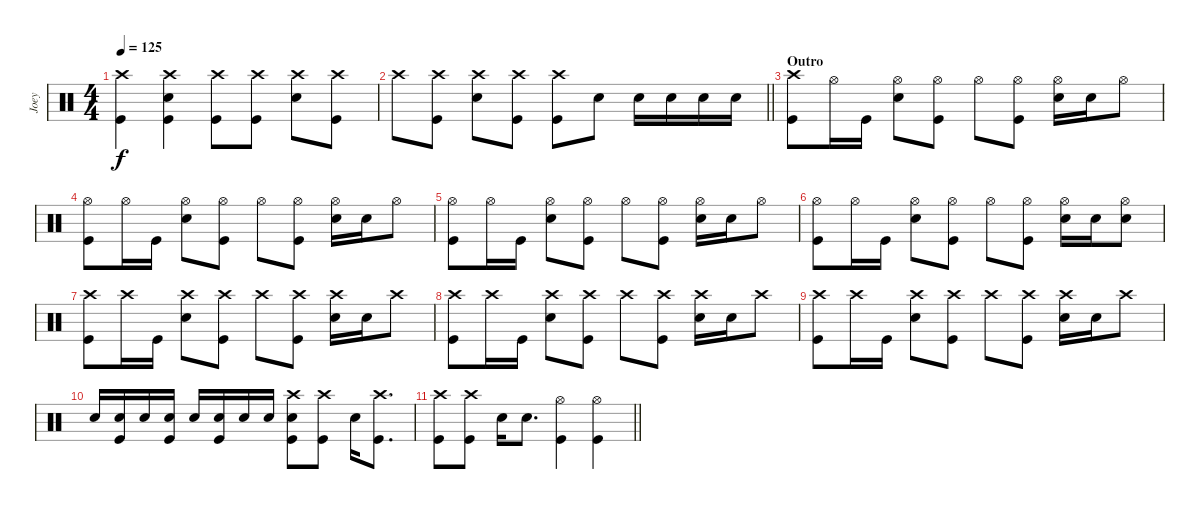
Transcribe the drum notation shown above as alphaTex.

\track ("Joey" "Joey") {instrument percussion}
\staff {score}
\articulation defaults
\ts (4 4)
\tempo 125
\clef neutral
\ks c
("Crash high (hit)" "Kick (hit)").4{dy f} ("Crash high (hit)" "Snare (hit) 2" "Kick (hit)").4 ("Crash high (hit)" "Kick (hit)").8 ("Crash high (hit)" "Kick (hit)").8 ("Crash high (hit)" "Snare (hit) 2").8 ("Crash high (hit)" "Kick (hit)").8 |
\barLineRight lightlight "Crash high (hit)".8
("Crash high (hit)" "Kick (hit)").8 ("Crash high (hit)" "Snare (hit) 2").8 ("Crash high (hit)" "Kick (hit)").8 ("Crash high (hit)" "Kick (hit)").8 "Snare (hit) 2".8 "Snare (hit) 2".16 "Snare (hit) 2".16 "Snare (hit) 2".16 "Snare (hit) 2".16 |
\section ("" "Outro")
("Crash high (hit)" "Kick (hit)").8 "Hi-Hat (open)".16 "Kick (hit)".16 ("Hi-Hat (open)" "Snare (hit) 2").8 ("Hi-Hat (open)" "Kick (hit)").8 "Hi-Hat (open)".8 ("Hi-Hat (open)" "Kick (hit)").8 ("Hi-Hat (open)" "Snare (hit) 2").16 "Snare (hit) 2".16 "Hi-Hat (open)".8 |
("Hi-Hat (open)" "Kick (hit)").8 "Hi-Hat (open)".16 "Kick (hit)".16 ("Hi-Hat (open)" "Snare (hit) 2").8 ("Hi-Hat (open)" "Kick (hit)").8 "Hi-Hat (open)".8 ("Hi-Hat (open)" "Kick (hit)").8 ("Hi-Hat (open)" "Snare (hit) 2").16 "Snare (hit) 2".16 "Hi-Hat (open)".8 |
("Hi-Hat (open)" "Kick (hit)").8 "Hi-Hat (open)".16 "Kick (hit)".16 ("Hi-Hat (open)" "Snare (hit) 2").8 ("Hi-Hat (open)" "Kick (hit)").8 "Hi-Hat (open)".8 ("Hi-Hat (open)" "Kick (hit)").8 ("Hi-Hat (open)" "Snare (hit) 2").16 "Snare (hit) 2".16 "Hi-Hat (open)".8 |
("Hi-Hat (open)" "Kick (hit)").8 "Hi-Hat (open)".16 "Kick (hit)".16 ("Hi-Hat (open)" "Snare (hit) 2").8 ("Hi-Hat (open)" "Kick (hit)").8 "Hi-Hat (open)".8 ("Hi-Hat (open)" "Kick (hit)").8 ("Hi-Hat (open)" "Snare (hit) 2").16 "Snare (hit) 2".16 ("Hi-Hat (open)" "Snare (hit) 2").8 |
("Crash high (hit)" "Kick (hit)").8 "Crash high (hit)".16 "Kick (hit)".16 ("Crash high (hit)" "Snare (hit) 2").8 ("Crash high (hit)" "Kick (hit)").8 "Crash high (hit)".8 ("Crash high (hit)" "Kick (hit)").8 ("Crash high (hit)" "Snare (hit) 2").16 "Snare (hit) 2".16 "Crash high (hit)".8 |
("Crash high (hit)" "Kick (hit)").8 "Crash high (hit)".16 "Kick (hit)".16 ("Crash high (hit)" "Snare (hit) 2").8 ("Crash high (hit)" "Kick (hit)").8 "Crash high (hit)".8 ("Crash high (hit)" "Kick (hit)").8 ("Crash high (hit)" "Snare (hit) 2").16 "Snare (hit) 2".16 "Crash high (hit)".8 |
("Crash high (hit)" "Kick (hit)").8 "Crash high (hit)".16 "Kick (hit)".16 ("Crash high (hit)" "Snare (hit) 2").8 ("Crash high (hit)" "Kick (hit)").8 "Crash high (hit)".8 ("Crash high (hit)" "Kick (hit)").8 ("Crash high (hit)" "Snare (hit) 2").16 "Snare (hit) 2".16 "Crash high (hit)".8 |
"Snare (hit) 2".16 ("Snare (hit) 2" "Kick (hit)").16 "Snare (hit) 2".16 ("Snare (hit) 2" "Kick (hit)").16 "Snare (hit) 2".16 ("Snare (hit) 2" "Kick (hit)").16 "Snare (hit) 2".16 "Snare (hit) 2".16 ("Crash high (hit)" "Snare (hit) 2" "Kick (hit)").8 ("Crash high (hit)" "Kick (hit)").8 "Snare (hit) 2".16 ("Crash high (hit)" "Kick (hit)").8{d} |
\barLineRight lightlight
("Crash high (hit)" "Kick (hit)").8 ("Crash high (hit)" "Kick (hit)").8 "Snare (hit) 2".16 "Snare (hit) 2".8{d} ("Hi-Hat (open)" "Kick (hit)").4{volume 5} ("Hi-Hat (open)" "Kick (hit)").4{volume 8}
